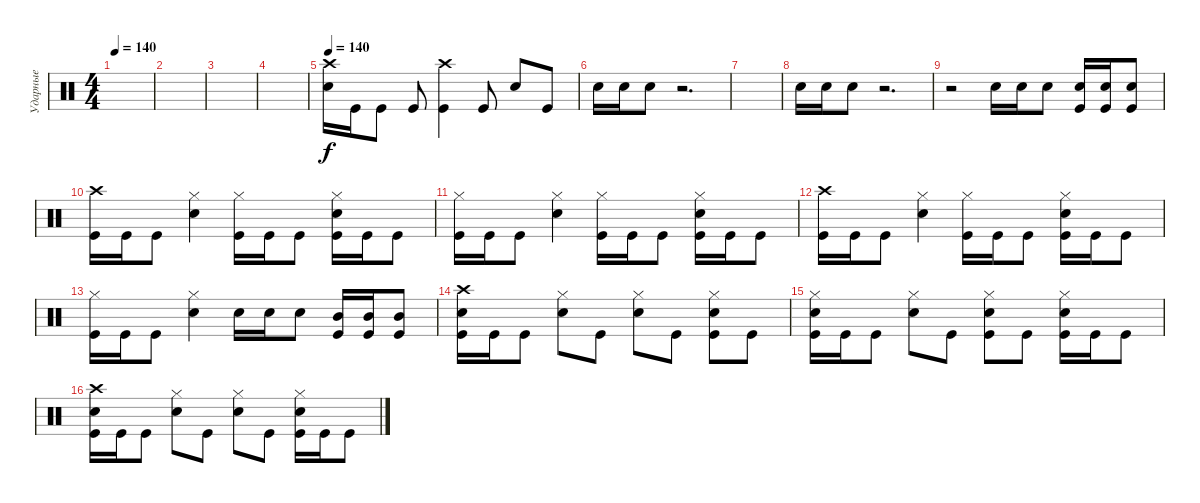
\track ("Ударные" "Ударные") {instrument percussion}
\staff {score}
\articulation defaults
\ts (4 4)
\tempo 140
\clef neutral
\ks c
|
|
|
|
\tempo 140
("Crash high (hit)" "Electric Snare (hit)").16 "Kick (hit)".16 "Kick (hit)".8 "Kick (hit)".8 ("Crash high (hit)" "Kick (hit)").4 "Kick (hit)".8 "Electric Snare (hit)".8 "Kick (hit)".8 |
"Electric Snare (hit)".16 "Electric Snare (hit)".16 "Electric Snare (hit)".8 r.2{d} |
|
"Electric Snare (hit)".16 "Electric Snare (hit)".16 "Electric Snare (hit)".8 r.2{d} |
r.2 "Electric Snare (hit)".16 "Electric Snare (hit)".16 "Electric Snare (hit)".8 ("Electric Snare (hit)" "Kick (hit)").16 ("Electric Snare (hit)" "Kick (hit)").16 ("Electric Snare (hit)" "Kick (hit)").8 |
("Crash high (hit)" "Kick (hit)").16 "Kick (hit)".16 "Kick (hit)".8 ("Hi-Hat (closed)" "Electric Snare (hit)").4 ("Hi-Hat (closed)" "Kick (hit)").16 "Kick (hit)".16 "Kick (hit)".8 ("Hi-Hat (closed)" "Electric Snare (hit)" "Kick (hit)").16 "Kick (hit)".16 "Kick (hit)".8 |
("Hi-Hat (closed)" "Kick (hit)").16 "Kick (hit)".16 "Kick (hit)".8 ("Hi-Hat (closed)" "Electric Snare (hit)").4 ("Hi-Hat (closed)" "Kick (hit)").16 "Kick (hit)".16 "Kick (hit)".8 ("Hi-Hat (closed)" "Electric Snare (hit)" "Kick (hit)").16 "Kick (hit)".16 "Kick (hit)".8 |
("Crash high (hit)" "Kick (hit)").16 "Kick (hit)".16 "Kick (hit)".8 ("Hi-Hat (closed)" "Electric Snare (hit)").4 ("Hi-Hat (closed)" "Kick (hit)").16 "Kick (hit)".16 "Kick (hit)".8 ("Hi-Hat (closed)" "Electric Snare (hit)" "Kick (hit)").16 "Kick (hit)".16 "Kick (hit)".8 |
("Hi-Hat (closed)" "Kick (hit)").16 "Kick (hit)".16 "Kick (hit)".8 ("Hi-Hat (closed)" "Electric Snare (hit)").4 "Electric Snare (hit)".16 "Electric Snare (hit)".16 "Electric Snare (hit)".8 ("Mid Tom (hit)" "Kick (hit)").16 ("Mid Tom (hit)" "Kick (hit)").16 ("Mid Tom (hit)" "Kick (hit)").8 |
("Crash high (hit)" "Electric Snare (hit)" "Kick (hit)").16 "Kick (hit)".16 "Kick (hit)".8 ("Hi-Hat (closed)" "Electric Snare (hit)").8 "Kick (hit)".8 ("Hi-Hat (closed)" "Electric Snare (hit)").8 "Kick (hit)".8 ("Hi-Hat (closed)" "Electric Snare (hit)" "Kick (hit)").8 "Kick (hit)".8 |
("Hi-Hat (closed)" "Electric Snare (hit)" "Kick (hit)").16 "Kick (hit)".16 "Kick (hit)".8 ("Hi-Hat (closed)" "Electric Snare (hit)").8 "Kick (hit)".8 ("Hi-Hat (closed)" "Electric Snare (hit)" "Kick (hit)").8 "Kick (hit)".8 ("Hi-Hat (closed)" "Electric Snare (hit)" "Kick (hit)").16 "Kick (hit)".16 "Kick (hit)".8 |
("Crash high (hit)" "Electric Snare (hit)" "Kick (hit)").16 "Kick (hit)".16 "Kick (hit)".8 ("Hi-Hat (closed)" "Electric Snare (hit)").8 "Kick (hit)".8 ("Hi-Hat (closed)" "Electric Snare (hit)").8 "Kick (hit)".8 ("Hi-Hat (closed)" "Electric Snare (hit)" "Kick (hit)").16 "Kick (hit)".16 "Kick (hit)".8
